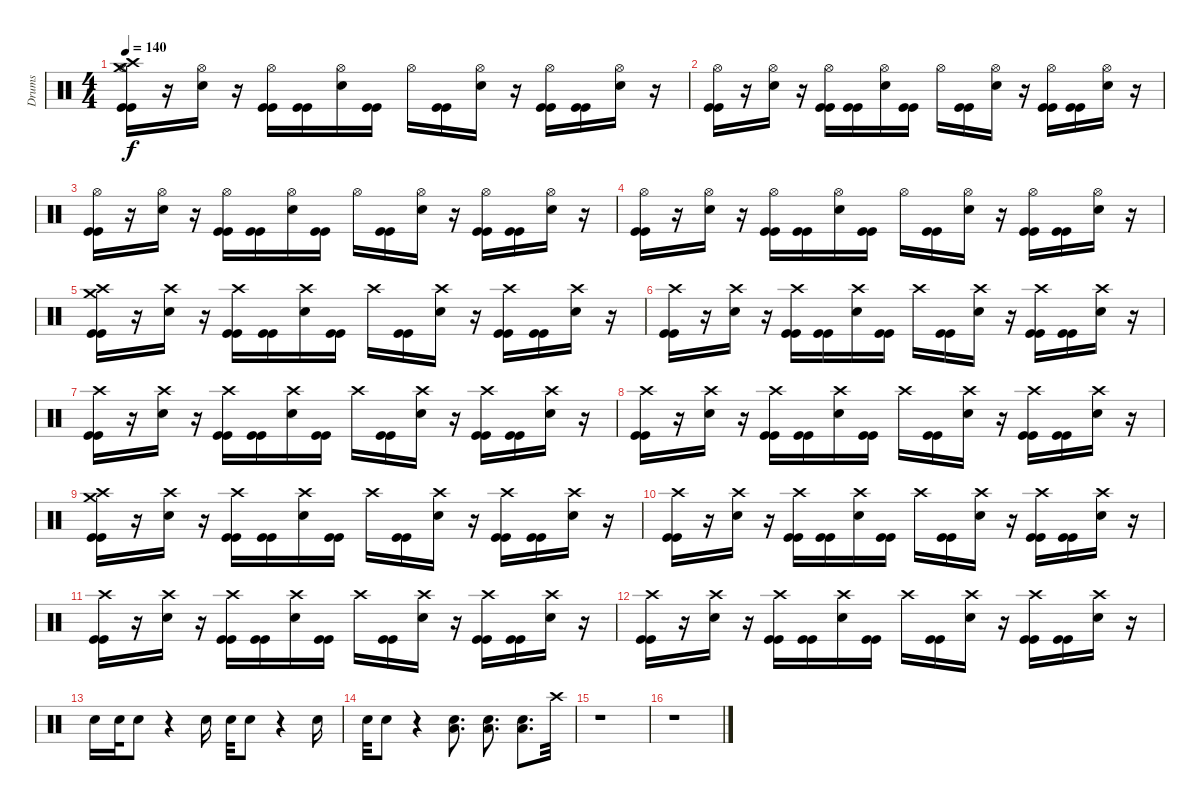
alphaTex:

\track ("Drums" "Drums") {instrument percussion}
\staff {score}
\articulation defaults
\ts (4 4)
\tempo 140
\clef neutral
\ks c
("Crash medium (hit)" "Crash high (hit)" "Hi-Hat (open)" "Kick (hit)" "Kick (hit)").16{dy f} r.16 ("Hi-Hat (open)" "Snare (hit) 2").16 r.16 ("Hi-Hat (open)" "Kick (hit)" "Kick (hit)").16 ("Kick (hit)" "Kick (hit)").16 ("Hi-Hat (open)" "Snare (hit) 2").16 ("Kick (hit)" "Kick (hit)").16 "Hi-Hat (open)".16 ("Kick (hit)" "Kick (hit)").16 ("Hi-Hat (open)" "Snare (hit) 2").16 r.16 ("Hi-Hat (open)" "Kick (hit)" "Kick (hit)").16 ("Kick (hit)" "Kick (hit)").16 ("Hi-Hat (open)" "Snare (hit) 2").16 r.16 |
("Hi-Hat (open)" "Kick (hit)" "Kick (hit)").16 r.16 ("Hi-Hat (open)" "Snare (hit) 2").16 r.16 ("Hi-Hat (open)" "Kick (hit)" "Kick (hit)").16 ("Kick (hit)" "Kick (hit)").16 ("Hi-Hat (open)" "Snare (hit) 2").16 ("Kick (hit)" "Kick (hit)").16 "Hi-Hat (open)".16 ("Kick (hit)" "Kick (hit)").16 ("Hi-Hat (open)" "Snare (hit) 2").16 r.16 ("Hi-Hat (open)" "Kick (hit)" "Kick (hit)").16 ("Kick (hit)" "Kick (hit)").16 ("Hi-Hat (open)" "Snare (hit) 2").16 r.16 |
("Hi-Hat (open)" "Kick (hit)" "Kick (hit)").16 r.16 ("Hi-Hat (open)" "Snare (hit) 2").16 r.16 ("Hi-Hat (open)" "Kick (hit)" "Kick (hit)").16 ("Kick (hit)" "Kick (hit)").16 ("Hi-Hat (open)" "Snare (hit) 2").16 ("Kick (hit)" "Kick (hit)").16 "Hi-Hat (open)".16 ("Kick (hit)" "Kick (hit)").16 ("Hi-Hat (open)" "Snare (hit) 2").16 r.16 ("Hi-Hat (open)" "Kick (hit)" "Kick (hit)").16 ("Kick (hit)" "Kick (hit)").16 ("Hi-Hat (open)" "Snare (hit) 2").16 r.16 |
("Hi-Hat (open)" "Kick (hit)" "Kick (hit)").16 r.16 ("Hi-Hat (open)" "Snare (hit) 2").16 r.16 ("Hi-Hat (open)" "Kick (hit)" "Kick (hit)").16 ("Kick (hit)" "Kick (hit)").16 ("Hi-Hat (open)" "Snare (hit) 2").16 ("Kick (hit)" "Kick (hit)").16 "Hi-Hat (open)".16 ("Kick (hit)" "Kick (hit)").16 ("Hi-Hat (open)" "Snare (hit) 2").16 r.16 ("Hi-Hat (open)" "Kick (hit)" "Kick (hit)").16 ("Kick (hit)" "Kick (hit)").16 ("Hi-Hat (open)" "Snare (hit) 2").16 r.16 |
("Crash medium (hit)" "Crash high (hit)" "Kick (hit)" "Kick (hit)").16 r.16 ("Crash high (hit)" "Snare (hit) 2").16 r.16 ("Crash high (hit)" "Kick (hit)" "Kick (hit)").16 ("Kick (hit)" "Kick (hit)").16 ("Crash high (hit)" "Snare (hit) 2").16 ("Kick (hit)" "Kick (hit)").16 "Crash high (hit)".16 ("Kick (hit)" "Kick (hit)").16 ("Crash high (hit)" "Snare (hit) 2").16 r.16 ("Crash high (hit)" "Kick (hit)" "Kick (hit)").16 ("Kick (hit)" "Kick (hit)").16 ("Crash high (hit)" "Snare (hit) 2").16 r.16 |
("Crash high (hit)" "Kick (hit)" "Kick (hit)").16 r.16 ("Crash high (hit)" "Snare (hit) 2").16 r.16 ("Crash high (hit)" "Kick (hit)" "Kick (hit)").16 ("Kick (hit)" "Kick (hit)").16 ("Crash high (hit)" "Snare (hit) 2").16 ("Kick (hit)" "Kick (hit)").16 "Crash high (hit)".16 ("Kick (hit)" "Kick (hit)").16 ("Crash high (hit)" "Snare (hit) 2").16 r.16 ("Crash high (hit)" "Kick (hit)" "Kick (hit)").16 ("Kick (hit)" "Kick (hit)").16 ("Crash high (hit)" "Snare (hit) 2").16 r.16 |
("Crash high (hit)" "Kick (hit)" "Kick (hit)").16 r.16 ("Crash high (hit)" "Snare (hit) 2").16 r.16 ("Crash high (hit)" "Kick (hit)" "Kick (hit)").16 ("Kick (hit)" "Kick (hit)").16 ("Crash high (hit)" "Snare (hit) 2").16 ("Kick (hit)" "Kick (hit)").16 "Crash high (hit)".16 ("Kick (hit)" "Kick (hit)").16 ("Crash high (hit)" "Snare (hit) 2").16 r.16 ("Crash high (hit)" "Kick (hit)" "Kick (hit)").16 ("Kick (hit)" "Kick (hit)").16 ("Crash high (hit)" "Snare (hit) 2").16 r.16 |
("Crash high (hit)" "Kick (hit)" "Kick (hit)").16 r.16 ("Crash high (hit)" "Snare (hit) 2").16 r.16 ("Crash high (hit)" "Kick (hit)" "Kick (hit)").16 ("Kick (hit)" "Kick (hit)").16 ("Crash high (hit)" "Snare (hit) 2").16 ("Kick (hit)" "Kick (hit)").16 "Crash high (hit)".16 ("Kick (hit)" "Kick (hit)").16 ("Crash high (hit)" "Snare (hit) 2").16 r.16 ("Crash high (hit)" "Kick (hit)" "Kick (hit)").16 ("Kick (hit)" "Kick (hit)").16 ("Crash high (hit)" "Snare (hit) 2").16 r.16 |
("Crash medium (hit)" "Crash high (hit)" "Kick (hit)" "Kick (hit)").16 r.16 ("Crash high (hit)" "Snare (hit) 2").16 r.16 ("Crash high (hit)" "Kick (hit)" "Kick (hit)").16 ("Kick (hit)" "Kick (hit)").16 ("Crash high (hit)" "Snare (hit) 2").16 ("Kick (hit)" "Kick (hit)").16 "Crash high (hit)".16 ("Kick (hit)" "Kick (hit)").16 ("Crash high (hit)" "Snare (hit) 2").16 r.16 ("Crash high (hit)" "Kick (hit)" "Kick (hit)").16 ("Kick (hit)" "Kick (hit)").16 ("Crash high (hit)" "Snare (hit) 2").16 r.16 |
("Crash high (hit)" "Kick (hit)" "Kick (hit)").16 r.16 ("Crash high (hit)" "Snare (hit) 2").16 r.16 ("Crash high (hit)" "Kick (hit)" "Kick (hit)").16 ("Kick (hit)" "Kick (hit)").16 ("Crash high (hit)" "Snare (hit) 2").16 ("Kick (hit)" "Kick (hit)").16 "Crash high (hit)".16 ("Kick (hit)" "Kick (hit)").16 ("Crash high (hit)" "Snare (hit) 2").16 r.16 ("Crash high (hit)" "Kick (hit)" "Kick (hit)").16 ("Kick (hit)" "Kick (hit)").16 ("Crash high (hit)" "Snare (hit) 2").16 r.16 |
("Crash high (hit)" "Kick (hit)" "Kick (hit)").16 r.16 ("Crash high (hit)" "Snare (hit) 2").16 r.16 ("Crash high (hit)" "Kick (hit)" "Kick (hit)").16 ("Kick (hit)" "Kick (hit)").16 ("Crash high (hit)" "Snare (hit) 2").16 ("Kick (hit)" "Kick (hit)").16 "Crash high (hit)".16 ("Kick (hit)" "Kick (hit)").16 ("Crash high (hit)" "Snare (hit) 2").16 r.16 ("Crash high (hit)" "Kick (hit)" "Kick (hit)").16 ("Kick (hit)" "Kick (hit)").16 ("Crash high (hit)" "Snare (hit) 2").16 r.16 |
("Crash high (hit)" "Kick (hit)" "Kick (hit)").16 r.16 ("Crash high (hit)" "Snare (hit) 2").16 r.16 ("Crash high (hit)" "Kick (hit)" "Kick (hit)").16 ("Kick (hit)" "Kick (hit)").16 ("Crash high (hit)" "Snare (hit) 2").16 ("Kick (hit)" "Kick (hit)").16 "Crash high (hit)".16 ("Kick (hit)" "Kick (hit)").16 ("Crash high (hit)" "Snare (hit) 2").16 r.16 ("Crash high (hit)" "Kick (hit)" "Kick (hit)").16 ("Kick (hit)" "Kick (hit)").16 ("Crash high (hit)" "Snare (hit) 2").16 r.16 |
"Snare (hit) 2".16 "Snare (hit) 2".32 "Snare (hit) 2".8 r.4 "Snare (hit) 2".16 "Snare (hit) 2".32 "Snare (hit) 2".8 r.4 "Snare (hit) 2".16 |
"Snare (hit) 2".32 "Snare (hit) 2".8 r.4 ("Snare (hit) 2" "Low Floor Tom (hit)").8{d} ("Snare (hit) 2" "Low Floor Tom (hit)").8{d} ("Snare (hit) 2" "Low Floor Tom (hit)").8{d} "Crash high (hit)".32 |
r.1 |
r.1
